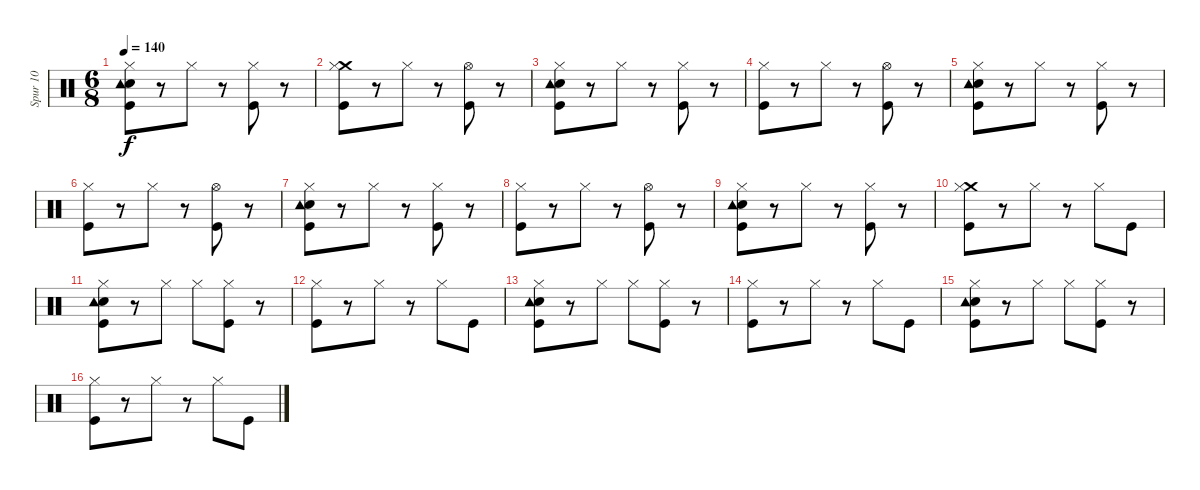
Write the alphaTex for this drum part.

\track ("Spur 10" "Spur 10") {instrument percussion}
\staff {score}
\articulation defaults
\ts (6 8)
\tempo 140
\clef neutral
\ks c
("Kick (hit)" "Snare (hit) 2" "Tambourine (hit)" "Hi-Hat (closed)").8{dy f} r.8 "Hi-Hat (closed)".8 r.8 ("Kick (hit)" "Hi-Hat (closed)").8 r.8 |
("Crash medium (hit)" "Kick (hit)" "Hi-Hat (closed)").8 r.8 "Hi-Hat (closed)".8 r.8 ("Hi-Hat (open)" "Kick (hit)").8 r.8 |
("Kick (hit)" "Snare (hit) 2" "Tambourine (hit)" "Hi-Hat (closed)").8 r.8 "Hi-Hat (closed)".8 r.8 ("Kick (hit)" "Hi-Hat (closed)").8 r.8 |
("Kick (hit)" "Hi-Hat (closed)").8 r.8 "Hi-Hat (closed)".8 r.8 ("Hi-Hat (open)" "Kick (hit)").8 r.8 |
("Kick (hit)" "Snare (hit) 2" "Tambourine (hit)" "Hi-Hat (closed)").8 r.8 "Hi-Hat (closed)".8 r.8 ("Kick (hit)" "Hi-Hat (closed)").8 r.8 |
("Kick (hit)" "Hi-Hat (closed)").8 r.8 "Hi-Hat (closed)".8 r.8 ("Hi-Hat (open)" "Kick (hit)").8 r.8 |
("Kick (hit)" "Snare (hit) 2" "Tambourine (hit)" "Hi-Hat (closed)").8 r.8 "Hi-Hat (closed)".8 r.8 ("Kick (hit)" "Hi-Hat (closed)").8 r.8 |
("Kick (hit)" "Hi-Hat (closed)").8 r.8 "Hi-Hat (closed)".8 r.8 ("Hi-Hat (open)" "Kick (hit)").8 r.8 |
("Kick (hit)" "Snare (hit) 2" "Tambourine (hit)" "Hi-Hat (closed)").8 r.8 "Hi-Hat (closed)".8 r.8 ("Kick (hit)" "Hi-Hat (closed)").8 r.8 |
("Crash medium (hit)" "Kick (hit)" "Hi-Hat (closed)").8 r.8 "Hi-Hat (closed)".8 r.8 "Hi-Hat (closed)".8 "Kick (hit)".8 |
("Kick (hit)" "Snare (hit) 2" "Tambourine (hit)" "Hi-Hat (closed)").8 r.8 "Hi-Hat (closed)".8 "Hi-Hat (closed)".8 ("Kick (hit)" "Hi-Hat (closed)").8 r.8 |
("Kick (hit)" "Hi-Hat (closed)").8 r.8 "Hi-Hat (closed)".8 r.8 "Hi-Hat (closed)".8 "Kick (hit)".8 |
("Kick (hit)" "Snare (hit) 2" "Tambourine (hit)" "Hi-Hat (closed)").8 r.8 "Hi-Hat (closed)".8 "Hi-Hat (closed)".8 ("Kick (hit)" "Hi-Hat (closed)").8 r.8 |
("Kick (hit)" "Hi-Hat (closed)").8 r.8 "Hi-Hat (closed)".8 r.8 "Hi-Hat (closed)".8 "Kick (hit)".8 |
("Kick (hit)" "Snare (hit) 2" "Tambourine (hit)" "Hi-Hat (closed)").8 r.8 "Hi-Hat (closed)".8 "Hi-Hat (closed)".8 ("Kick (hit)" "Hi-Hat (closed)").8 r.8 |
("Kick (hit)" "Hi-Hat (closed)").8 r.8 "Hi-Hat (closed)".8 r.8 "Hi-Hat (closed)".8 "Kick (hit)".8
